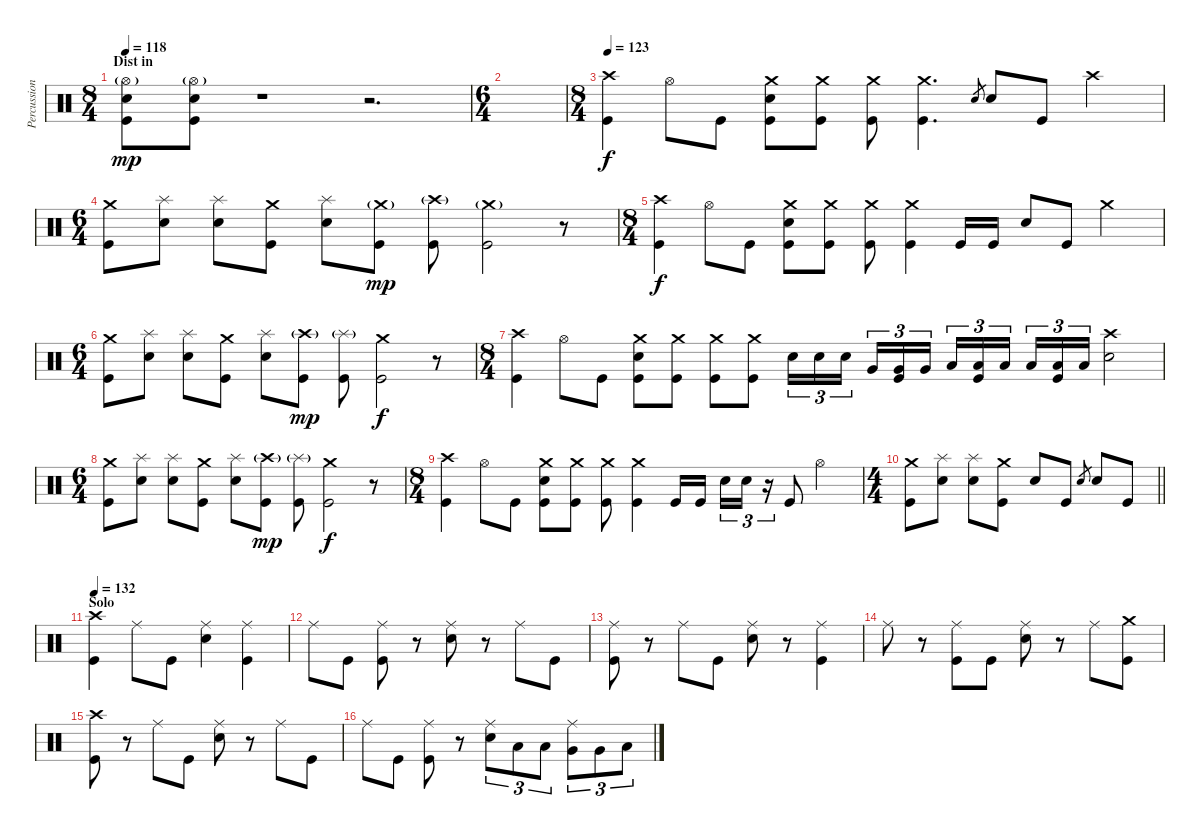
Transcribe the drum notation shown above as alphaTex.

\track ("Percussion" "Percussion") {instrument percussion}
\staff {score}
\articulation defaults
\ts (8 4)
\section ("" "Dist in")
\tempo 118
\clef neutral
\ks c
("Hi-Hat (open)"{g} "Kick (hit)" "Snare (hit) 2").8{dy mp} ("Hi-Hat (open)"{g} "Kick (hit)" "Snare (hit) 2").8 r.1 r.2{d} |
\ts (6 4)
|
\ts (8 4)
\tempo 123
("Kick (hit)" "Crash high (hit)").4{dy f volume 13} "Hi-Hat (open)".8 "Kick (hit)".8 ("Kick (hit)" "Snare (hit) 2" "Crash medium (hit)").8 ("Kick (hit)" "Crash medium (hit)").8 ("Kick (hit)" "Crash medium (hit)").8 ("Kick (hit)" "Crash medium (hit)").4{d} "Snare (hit) 2".8{gr} "Snare (hit) 2".8 "Kick (hit)".8 "Crash high (hit)".2 |
\ts (6 4)
("Kick (hit)" "Crash medium (hit)").8 ("Snare (hit) 2" "Splash (hit)").8 ("Snare (hit) 2" "Splash (hit)").8 ("Kick (hit)" "Crash medium (hit)").8 ("Splash (hit)" "Snare (hit) 2").8 ("Kick (hit)" "Crash medium (hit)"{g}).8{dy mp} ("Kick (hit)" "Crash high (hit)"{g}).8 ("Kick (hit)" "Crash medium (hit)"{g}).2 r.8 |
\ts (8 4)
("Kick (hit)" "Crash high (hit)").4{dy f} "Hi-Hat (open)".8 "Kick (hit)".8 ("Kick (hit)" "Snare (hit) 2" "Crash medium (hit)").8 ("Kick (hit)" "Crash medium (hit)").8 ("Kick (hit)" "Crash medium (hit)").8 ("Kick (hit)" "Crash medium (hit)").4 "Kick (hit)".16 "Kick (hit)".16 "Snare (hit) 2".8 "Kick (hit)".8 "Crash medium (hit)".2 |
\ts (6 4)
("Kick (hit)" "Crash medium (hit)").8 ("Snare (hit) 2" "Splash (hit)").8 ("Snare (hit) 2" "Splash (hit)").8 ("Kick (hit)" "Crash medium (hit)").8 ("Splash (hit)" "Snare (hit) 2").8 ("Kick (hit)" "Crash high (hit)"{g}).8{dy mp} ("Kick (hit)" "Splash (hit)"{g}).8 ("Kick (hit)" "Crash medium (hit)").2{dy f} r.8 |
\ts (8 4)
("Kick (hit)" "Crash high (hit)").4 "Hi-Hat (open)".8 "Kick (hit)".8 ("Kick (hit)" "Snare (hit) 2" "Crash medium (hit)").8 ("Kick (hit)" "Crash medium (hit)").8 ("Kick (hit)" "Crash medium (hit)").8 ("Kick (hit)" "Crash medium (hit)").8 "Snare (hit) 2".16{tu (3 2)} "Snare (hit) 2".16{tu (3 2)} "Snare (hit) 2".16{tu (3 2) beam splitsecondary} "Very Low Tom (hit)".16{tu (3 2)} ("Kick (hit)" "Very Low Tom (hit)").16{tu (3 2)} "Very Low Tom (hit)".16{tu (3 2)} "Low Tom (hit)".16{tu (3 2)} ("Kick (hit)" "Low Tom (hit)").16{tu (3 2)} "Low Tom (hit)".16{tu (3 2) beam splitsecondary} "Low Floor Tom (hit)".16{tu (3 2)} ("Kick (hit)" "Low Floor Tom (hit)").16{tu (3 2)} "Low Floor Tom (hit)".16{tu (3 2)} ("Crash high (hit)" "Snare (hit) 2").2 |
\ts (6 4)
("Kick (hit)" "Crash medium (hit)").8 ("Snare (hit) 2" "Splash (hit)").8 ("Snare (hit) 2" "Splash (hit)").8 ("Kick (hit)" "Crash medium (hit)").8 ("Splash (hit)" "Snare (hit) 2").8 ("Kick (hit)" "Crash high (hit)"{g}).8{dy mp} ("Kick (hit)" "Splash (hit)"{g}).8 ("Kick (hit)" "Crash medium (hit)").2{dy f} r.8 |
\ts (8 4)
("Kick (hit)" "Crash high (hit)").4 "Hi-Hat (open)".8 "Kick (hit)".8 ("Kick (hit)" "Snare (hit) 2" "Crash medium (hit)").8 ("Kick (hit)" "Crash medium (hit)").8 ("Kick (hit)" "Crash medium (hit)").8 ("Kick (hit)" "Crash medium (hit)").4 "Kick (hit)".16 "Kick (hit)".16 "Snare (hit) 2".16{tu (3 2)} "Snare (hit) 2".16{tu (3 2)} r.16{tu (3 2)} "Kick (hit)".8 "Hi-Hat (open)".2 |
\ts (4 4)
\barLineRight lightlight
("Kick (hit)" "Crash medium (hit)").8 ("Snare (hit) 2" "Splash (hit)").8 ("Snare (hit) 2" "Splash (hit)").8 ("Kick (hit)" "Crash medium (hit)").8 "Snare (hit) 2".8 "Kick (hit)".8 "Snare (hit) 2".8{gr} "Snare (hit) 2".8 "Kick (hit)".8 |
\section ("" "Solo")
\tempo 132
("Kick (hit)" "Crash high (hit)").4{volume 11} "Ride (middle)".8 "Kick (hit)".8 ("Ride (middle)" "Snare (hit) 2").4 ("Ride (middle)" "Kick (hit)").4 |
"Ride (middle)".8 "Kick (hit)".8 ("Ride (middle)" "Kick (hit)").8 r.8 ("Ride (middle)" "Snare (hit) 2").8 r.8 "Ride (middle)".8 "Kick (hit)".8 |
("Ride (middle)" "Kick (hit)").8 r.8 "Ride (middle)".8 "Kick (hit)".8 ("Ride (middle)" "Snare (hit) 2").8 r.8 ("Ride (middle)" "Kick (hit)").4 |
"Ride (middle)".8 r.8 ("Ride (middle)" "Kick (hit)").8 "Kick (hit)".8 ("Ride (middle)" "Snare (hit) 2").8 r.8 "Ride (middle)".8 ("Kick (hit)" "Crash medium (hit)").8 |
("Kick (hit)" "Crash high (hit)").8 r.8 "Ride (middle)".8 "Kick (hit)".8 ("Ride (middle)" "Snare (hit) 2").8 r.8 "Ride (middle)".8 "Kick (hit)".8 |
"Ride (middle)".8 "Kick (hit)".8 ("Ride (middle)" "Kick (hit)").8 r.8 ("Ride (middle)" "Snare (hit) 2").8{tu (3 2)} "Low Floor Tom (hit)".8{tu (3 2)} "Low Floor Tom (hit)".8{tu (3 2)} ("Ride (middle)" "Very Low Tom (hit)").8{tu (3 2)} "Very Low Tom (hit)".8{tu (3 2)} "Low Floor Tom (hit)".8{tu (3 2)}
